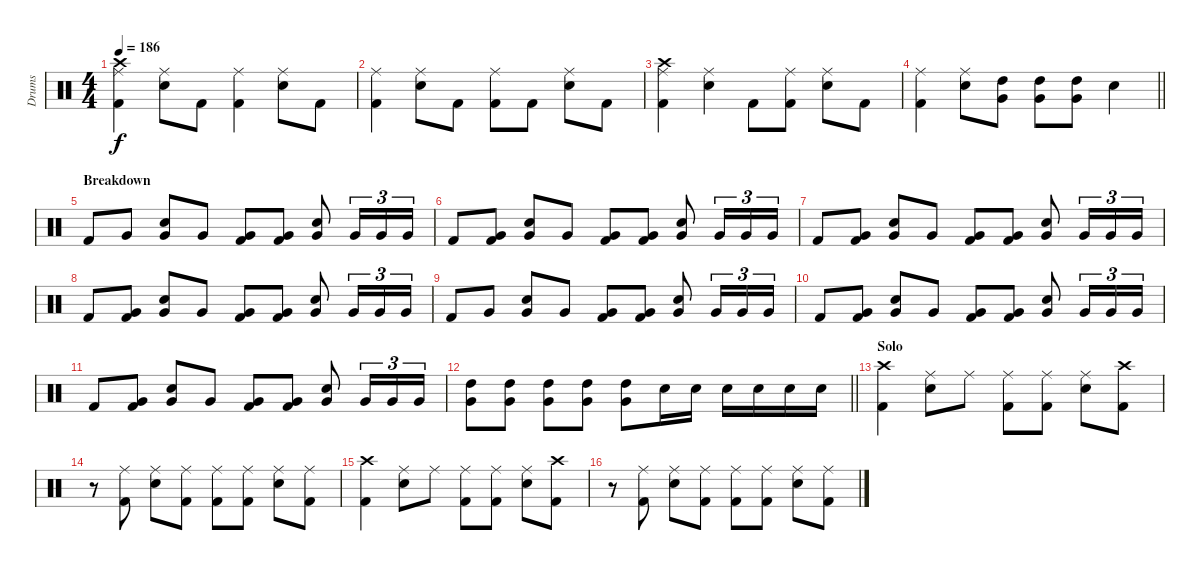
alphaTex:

\track ("Drums" "Drums") {instrument percussion}
\staff {score}
\articulation defaults
\ts (4 4)
\tempo 186
\clef neutral
\ks c
("Crash high (hit)" "Ride (middle)" "Kick (hit) 2").4{dy f} ("Ride (middle)" "Snare (hit) 2").8 "Kick (hit) 2".8 ("Ride (middle)" "Kick (hit) 2").4 ("Ride (middle)" "Snare (hit) 2").8 "Kick (hit) 2".8 |
("Ride (middle)" "Kick (hit) 2").4 ("Ride (middle)" "Snare (hit) 2").8 "Kick (hit) 2".8 ("Ride (middle)" "Kick (hit) 2").8 "Kick (hit) 2".8 ("Ride (middle)" "Snare (hit) 2").8 "Kick (hit) 2".8 |
("Crash high (hit)" "Ride (middle)" "Kick (hit) 2").4 ("Ride (middle)" "Snare (hit) 2").4 "Kick (hit) 2".8 ("Ride (middle)" "Kick (hit) 2").8 ("Ride (middle)" "Snare (hit) 2").8 "Kick (hit) 2".8 |
\barLineRight lightlight
("Ride (middle)" "Kick (hit) 2").4 ("Ride (middle)" "Snare (hit) 2").8 ("High Tom (hit)" "Very Low Tom (hit)").8 ("High Tom (hit)" "Very Low Tom (hit)").8 ("High Tom (hit)" "Very Low Tom (hit)").8 "Snare (hit) 2".4 |
\section ("" "Breakdown")
"Kick (hit) 2".8 "Very Low Tom (hit)".8 ("Snare (hit) 2" "Very Low Tom (hit)").8 "Very Low Tom (hit)".8 ("Very Low Tom (hit)" "Kick (hit) 2").8 ("Very Low Tom (hit)" "Kick (hit) 2").8 ("Snare (hit) 2" "Very Low Tom (hit)").8 "Very Low Tom (hit)".16{tu (3 2)} "Very Low Tom (hit)".16{tu (3 2)} "Very Low Tom (hit)".16{tu (3 2)} |
"Kick (hit) 2".8 ("Very Low Tom (hit)" "Kick (hit) 2").8 ("Snare (hit) 2" "Very Low Tom (hit)").8 "Very Low Tom (hit)".8 ("Very Low Tom (hit)" "Kick (hit) 2").8 ("Very Low Tom (hit)" "Kick (hit) 2").8 ("Snare (hit) 2" "Very Low Tom (hit)").8 "Very Low Tom (hit)".16{tu (3 2)} "Very Low Tom (hit)".16{tu (3 2)} "Very Low Tom (hit)".16{tu (3 2)} |
"Kick (hit) 2".8 ("Very Low Tom (hit)" "Kick (hit) 2").8 ("Snare (hit) 2" "Very Low Tom (hit)").8 "Very Low Tom (hit)".8 ("Very Low Tom (hit)" "Kick (hit) 2").8 ("Very Low Tom (hit)" "Kick (hit) 2").8 ("Snare (hit) 2" "Very Low Tom (hit)").8 "Very Low Tom (hit)".16{tu (3 2)} "Very Low Tom (hit)".16{tu (3 2)} "Very Low Tom (hit)".16{tu (3 2)} |
"Kick (hit) 2".8 ("Very Low Tom (hit)" "Kick (hit) 2").8 ("Snare (hit) 2" "Very Low Tom (hit)").8 "Very Low Tom (hit)".8 ("Very Low Tom (hit)" "Kick (hit) 2").8 ("Very Low Tom (hit)" "Kick (hit) 2").8 ("Snare (hit) 2" "Very Low Tom (hit)").8 "Very Low Tom (hit)".16{tu (3 2)} "Very Low Tom (hit)".16{tu (3 2)} "Very Low Tom (hit)".16{tu (3 2)} |
"Kick (hit) 2".8 "Very Low Tom (hit)".8 ("Snare (hit) 2" "Very Low Tom (hit)").8 "Very Low Tom (hit)".8 ("Very Low Tom (hit)" "Kick (hit) 2").8 ("Very Low Tom (hit)" "Kick (hit) 2").8 ("Snare (hit) 2" "Very Low Tom (hit)").8 "Very Low Tom (hit)".16{tu (3 2)} "Very Low Tom (hit)".16{tu (3 2)} "Very Low Tom (hit)".16{tu (3 2)} |
"Kick (hit) 2".8 ("Very Low Tom (hit)" "Kick (hit) 2").8 ("Snare (hit) 2" "Very Low Tom (hit)").8 "Very Low Tom (hit)".8 ("Very Low Tom (hit)" "Kick (hit) 2").8 ("Very Low Tom (hit)" "Kick (hit) 2").8 ("Snare (hit) 2" "Very Low Tom (hit)").8 "Very Low Tom (hit)".16{tu (3 2)} "Very Low Tom (hit)".16{tu (3 2)} "Very Low Tom (hit)".16{tu (3 2)} |
"Kick (hit) 2".8 ("Very Low Tom (hit)" "Kick (hit) 2").8 ("Snare (hit) 2" "Very Low Tom (hit)").8 "Very Low Tom (hit)".8 ("Very Low Tom (hit)" "Kick (hit) 2").8 ("Very Low Tom (hit)" "Kick (hit) 2").8 ("Snare (hit) 2" "Very Low Tom (hit)").8 "Very Low Tom (hit)".16{tu (3 2)} "Very Low Tom (hit)".16{tu (3 2)} "Very Low Tom (hit)".16{tu (3 2)} |
\barLineRight lightlight
("High Tom (hit)" "Very Low Tom (hit)").8 ("High Tom (hit)" "Very Low Tom (hit)").8 ("High Tom (hit)" "Very Low Tom (hit)").8 ("High Tom (hit)" "Very Low Tom (hit)").8 ("High Tom (hit)" "Very Low Tom (hit)").8 "Snare (hit) 2".16 "Snare (hit) 2".16 "Snare (hit) 2".16 "Snare (hit) 2".16 "Snare (hit) 2".16 "Snare (hit) 2".16 |
\section ("" "Solo")
("Crash high (hit)" "Kick (hit) 2").4 ("Ride (middle)" "Snare (hit) 2").8 "Ride (middle)".8 ("Ride (middle)" "Kick (hit) 2").8 ("Ride (middle)" "Kick (hit) 2").8 ("Ride (middle)" "Snare (hit) 2").8 ("Crash high (hit)" "Kick (hit) 2").8 |
r.8 ("Ride (middle)" "Kick (hit) 2").8 ("Ride (middle)" "Snare (hit) 2").8 ("Ride (middle)" "Kick (hit) 2").8 ("Ride (middle)" "Kick (hit) 2").8 ("Ride (middle)" "Kick (hit) 2").8 ("Ride (middle)" "Snare (hit) 2").8 ("Ride (middle)" "Kick (hit) 2").8 |
("Crash high (hit)" "Kick (hit) 2").4 ("Ride (middle)" "Snare (hit) 2").8 "Ride (middle)".8 ("Ride (middle)" "Kick (hit) 2").8 ("Ride (middle)" "Kick (hit) 2").8 ("Ride (middle)" "Snare (hit) 2").8 ("Crash high (hit)" "Kick (hit) 2").8 |
r.8 ("Ride (middle)" "Kick (hit) 2").8 ("Ride (middle)" "Snare (hit) 2").8 ("Ride (middle)" "Kick (hit) 2").8 ("Ride (middle)" "Kick (hit) 2").8 ("Ride (middle)" "Kick (hit) 2").8 ("Ride (middle)" "Snare (hit) 2").8 ("Ride (middle)" "Kick (hit) 2").8
